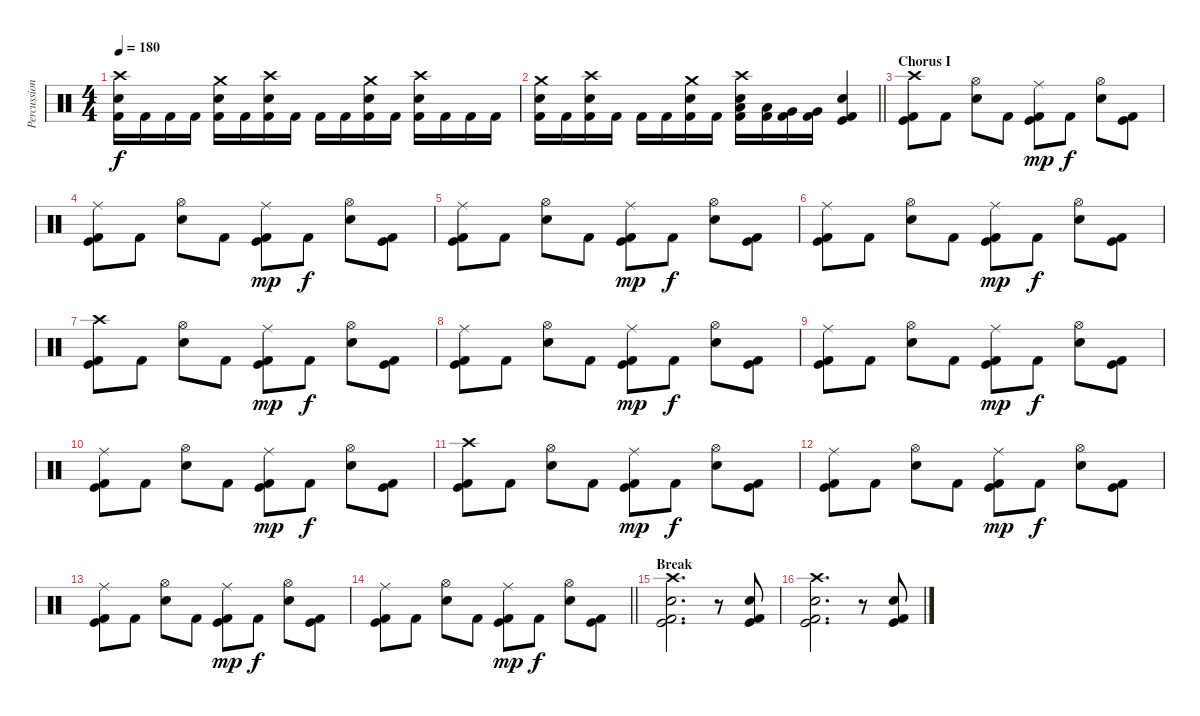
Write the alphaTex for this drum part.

\track ("Percussion" "Percussion") {instrument percussion}
\staff {score}
\articulation defaults
\ts (4 4)
\tempo 180
\clef neutral
\ks c
("Crash high (hit)" "Snare (hit) 2" "Kick (hit) 2").16{dy f} "Kick (hit) 2".16 "Kick (hit) 2".16 "Kick (hit) 2".16 ("Crash medium (hit)" "Snare (hit) 2" "Kick (hit) 2").16 "Kick (hit) 2".16 ("Crash high (hit)" "Snare (hit) 2" "Kick (hit) 2").16 "Kick (hit) 2".16 "Kick (hit) 2".16 "Kick (hit) 2".16 ("Crash medium (hit)" "Snare (hit) 2" "Kick (hit) 2").16 "Kick (hit) 2".16 ("Crash high (hit)" "Snare (hit) 2" "Kick (hit) 2").16 "Kick (hit) 2".16 "Kick (hit) 2".16 "Kick (hit) 2".16 |
\barLineRight lightlight
("Crash medium (hit)" "Snare (hit) 2" "Kick (hit) 2").16 "Kick (hit) 2".16 ("Crash high (hit)" "Snare (hit) 2" "Kick (hit) 2").16 "Kick (hit) 2".16 "Kick (hit) 2".16 "Kick (hit) 2".16 ("Crash medium (hit)" "Snare (hit) 2" "Kick (hit) 2").16 "Kick (hit) 2".16 ("Crash high (hit)" "Snare (hit) 2" "Low Tom (hit)" "Kick (hit) 2").16 ("Low Tom (hit)" "Kick (hit) 2").16 ("Very Low Tom (hit)" "Kick (hit) 2").16 ("Very Low Tom (hit)" "Kick (hit) 2").16 ("Snare (hit) 2" "Kick (hit)" "Kick (hit) 2").4 |
\section ("" "Chorus I")
("Crash high (hit)" "Kick (hit)" "Kick (hit) 2").8 "Kick (hit) 2".8 ("Hi-Hat (open)" "Snare (hit) 2").8 "Kick (hit) 2".8 ("Ride (middle)" "Kick (hit)" "Kick (hit) 2").8{dy mp} "Kick (hit) 2".8{dy f} ("Hi-Hat (open)" "Snare (hit) 2").8 ("Kick (hit)" "Kick (hit) 2").8 |
("Ride (middle)" "Kick (hit)" "Kick (hit) 2").8 "Kick (hit) 2".8 ("Hi-Hat (open)" "Snare (hit) 2").8 "Kick (hit) 2".8 ("Ride (middle)" "Kick (hit)" "Kick (hit) 2").8{dy mp} "Kick (hit) 2".8{dy f} ("Hi-Hat (open)" "Snare (hit) 2").8 ("Kick (hit)" "Kick (hit) 2").8 |
("Ride (middle)" "Kick (hit)" "Kick (hit) 2").8 "Kick (hit) 2".8 ("Hi-Hat (open)" "Snare (hit) 2").8 "Kick (hit) 2".8 ("Ride (middle)" "Kick (hit)" "Kick (hit) 2").8{dy mp} "Kick (hit) 2".8{dy f} ("Hi-Hat (open)" "Snare (hit) 2").8 ("Kick (hit)" "Kick (hit) 2").8 |
("Ride (middle)" "Kick (hit)" "Kick (hit) 2").8 "Kick (hit) 2".8 ("Hi-Hat (open)" "Snare (hit) 2").8 "Kick (hit) 2".8 ("Ride (middle)" "Kick (hit)" "Kick (hit) 2").8{dy mp} "Kick (hit) 2".8{dy f} ("Hi-Hat (open)" "Snare (hit) 2").8 ("Kick (hit)" "Kick (hit) 2").8 |
("Crash high (hit)" "Kick (hit)" "Kick (hit) 2").8 "Kick (hit) 2".8 ("Hi-Hat (open)" "Snare (hit) 2").8 "Kick (hit) 2".8 ("Ride (middle)" "Kick (hit)" "Kick (hit) 2").8{dy mp} "Kick (hit) 2".8{dy f} ("Hi-Hat (open)" "Snare (hit) 2").8 ("Kick (hit)" "Kick (hit) 2").8 |
("Ride (middle)" "Kick (hit)" "Kick (hit) 2").8 "Kick (hit) 2".8 ("Hi-Hat (open)" "Snare (hit) 2").8 "Kick (hit) 2".8 ("Ride (middle)" "Kick (hit)" "Kick (hit) 2").8{dy mp} "Kick (hit) 2".8{dy f} ("Hi-Hat (open)" "Snare (hit) 2").8 ("Kick (hit)" "Kick (hit) 2").8 |
("Ride (middle)" "Kick (hit)" "Kick (hit) 2").8 "Kick (hit) 2".8 ("Hi-Hat (open)" "Snare (hit) 2").8 "Kick (hit) 2".8 ("Ride (middle)" "Kick (hit)" "Kick (hit) 2").8{dy mp} "Kick (hit) 2".8{dy f} ("Hi-Hat (open)" "Snare (hit) 2").8 ("Kick (hit)" "Kick (hit) 2").8 |
("Ride (middle)" "Kick (hit)" "Kick (hit) 2").8 "Kick (hit) 2".8 ("Hi-Hat (open)" "Snare (hit) 2").8 "Kick (hit) 2".8 ("Ride (middle)" "Kick (hit)" "Kick (hit) 2").8{dy mp} "Kick (hit) 2".8{dy f} ("Hi-Hat (open)" "Snare (hit) 2").8 ("Kick (hit)" "Kick (hit) 2").8 |
("Crash high (hit)" "Kick (hit)" "Kick (hit) 2").8 "Kick (hit) 2".8 ("Hi-Hat (open)" "Snare (hit) 2").8 "Kick (hit) 2".8 ("Ride (middle)" "Kick (hit)" "Kick (hit) 2").8{dy mp} "Kick (hit) 2".8{dy f} ("Hi-Hat (open)" "Snare (hit) 2").8 ("Kick (hit)" "Kick (hit) 2").8 |
("Ride (middle)" "Kick (hit)" "Kick (hit) 2").8 "Kick (hit) 2".8 ("Hi-Hat (open)" "Snare (hit) 2").8 "Kick (hit) 2".8 ("Ride (middle)" "Kick (hit)" "Kick (hit) 2").8{dy mp} "Kick (hit) 2".8{dy f} ("Hi-Hat (open)" "Snare (hit) 2").8 ("Kick (hit)" "Kick (hit) 2").8 |
("Ride (middle)" "Kick (hit)" "Kick (hit) 2").8 "Kick (hit) 2".8 ("Hi-Hat (open)" "Snare (hit) 2").8 "Kick (hit) 2".8 ("Ride (middle)" "Kick (hit)" "Kick (hit) 2").8{dy mp} "Kick (hit) 2".8{dy f} ("Hi-Hat (open)" "Snare (hit) 2").8 ("Kick (hit)" "Kick (hit) 2").8 |
\barLineRight lightlight
("Ride (middle)" "Kick (hit)" "Kick (hit) 2").8 "Kick (hit) 2".8 ("Hi-Hat (open)" "Snare (hit) 2").8 "Kick (hit) 2".8 ("Ride (middle)" "Kick (hit)" "Kick (hit) 2").8{dy mp} "Kick (hit) 2".8{dy f} ("Hi-Hat (open)" "Snare (hit) 2").8 ("Kick (hit)" "Kick (hit) 2").8 |
\section ("" "Break")
("Crash high (hit)" "Snare (hit) 2" "Kick (hit)" "Kick (hit) 2").2{d} r.8 ("Snare (hit) 2" "Kick (hit)" "Kick (hit) 2").8 |
("Crash high (hit)" "Snare (hit) 2" "Kick (hit)" "Kick (hit) 2").2{d} r.8 ("Snare (hit) 2" "Kick (hit)" "Kick (hit) 2").8
